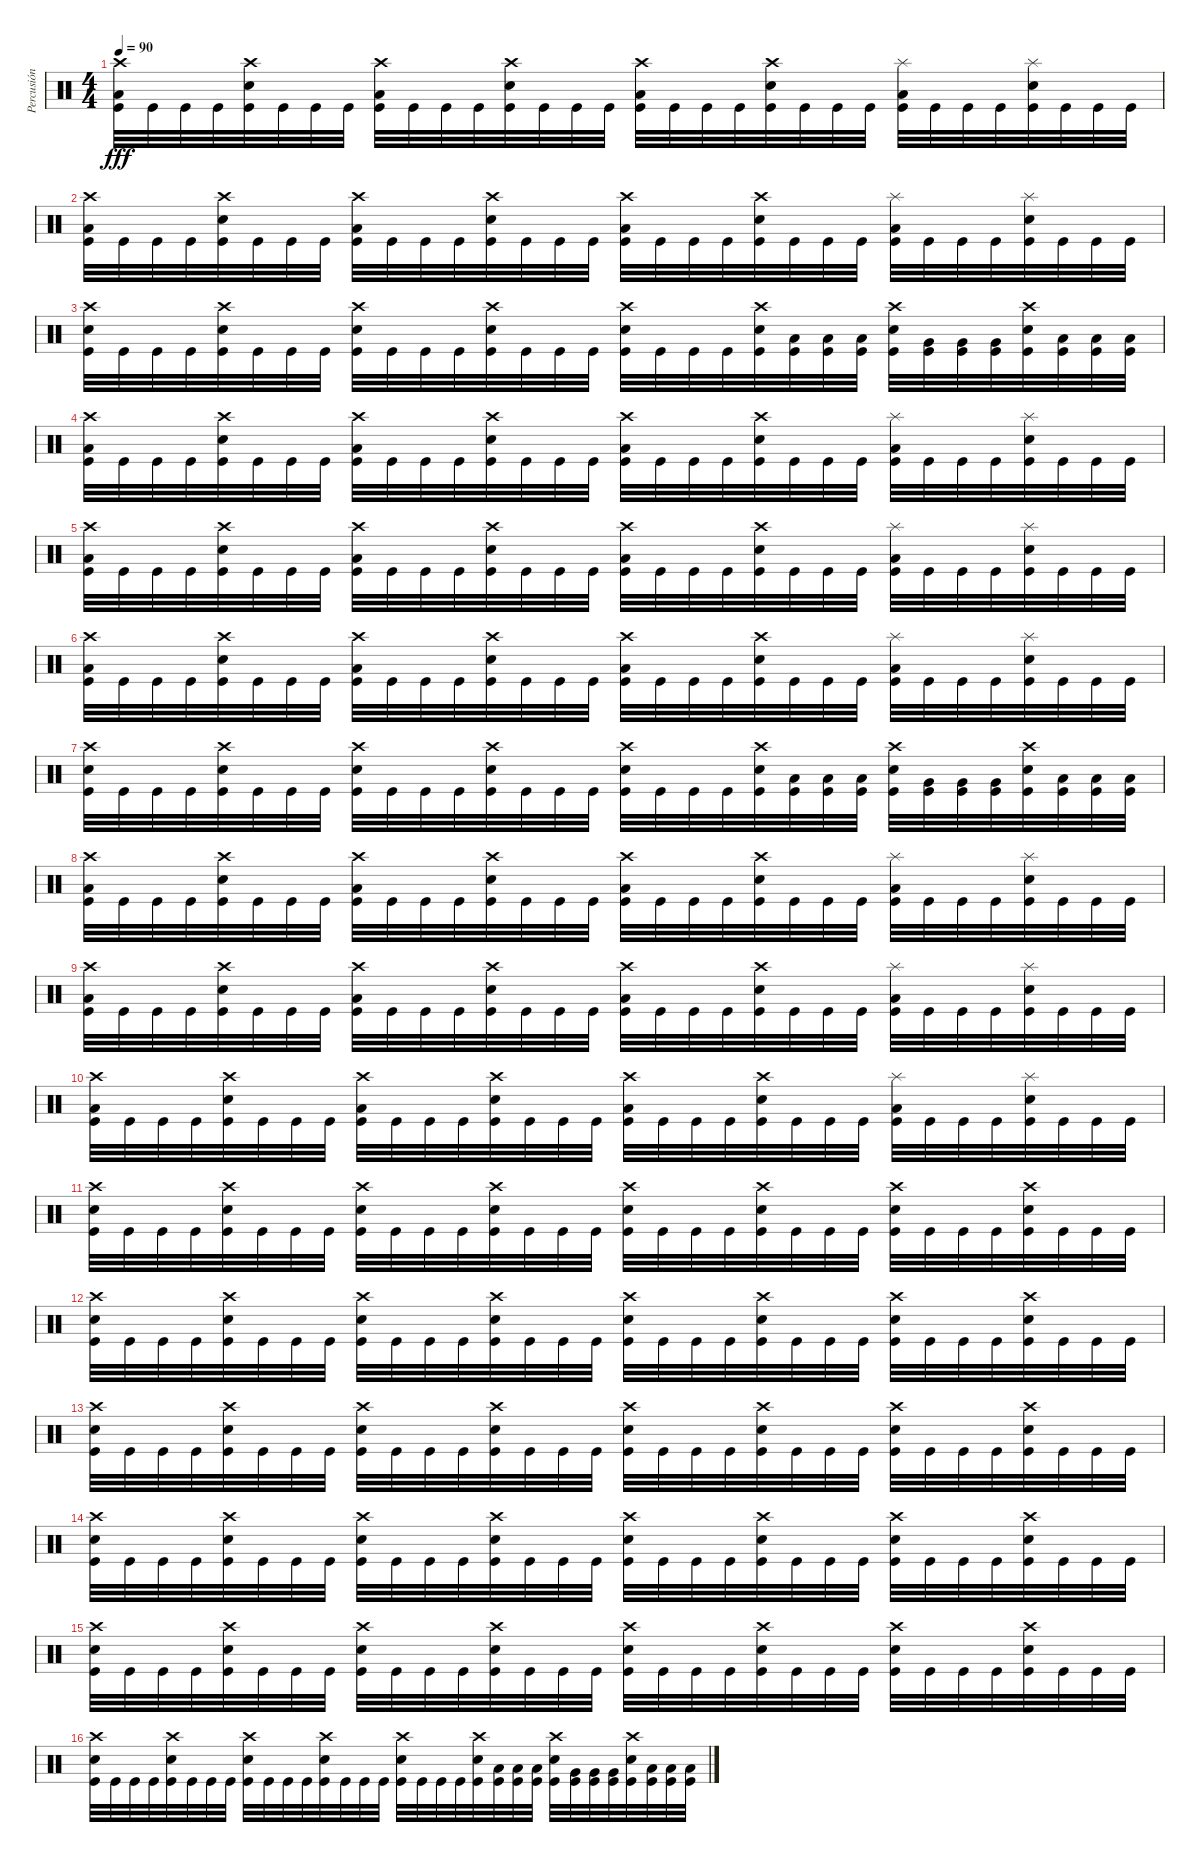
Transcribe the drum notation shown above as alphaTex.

\track ("Percusión" "Percusión") {instrument percussion}
\staff {score}
\articulation defaults
\ts (4 4)
\tempo 90
\clef neutral
\ks c
("Crash high (hit)" "Low Floor Tom (hit)" "Kick (hit)").32{dy fff} "Kick (hit)".32 "Kick (hit)".32 "Kick (hit)".32 ("Crash high (hit)" "Snare (hit) 2" "Kick (hit)").32 "Kick (hit)".32 "Kick (hit)".32 "Kick (hit)".32 ("Crash high (hit)" "Low Floor Tom (hit)" "Kick (hit)").32 "Kick (hit)".32 "Kick (hit)".32 "Kick (hit)".32 ("Crash high (hit)" "Snare (hit) 2" "Kick (hit)").32 "Kick (hit)".32 "Kick (hit)".32 "Kick (hit)".32 ("Crash high (hit)" "Low Floor Tom (hit)" "Kick (hit)").32 "Kick (hit)".32 "Kick (hit)".32 "Kick (hit)".32 ("Crash high (hit)" "Snare (hit) 2" "Kick (hit)").32 "Kick (hit)".32 "Kick (hit)".32 "Kick (hit)".32 ("Splash (hit)" "Low Floor Tom (hit)" "Kick (hit)").32 "Kick (hit)".32 "Kick (hit)".32 "Kick (hit)".32 ("Splash (hit)" "Snare (hit) 2" "Kick (hit)").32 "Kick (hit)".32 "Kick (hit)".32 "Kick (hit)".32 |
("Crash high (hit)" "Low Floor Tom (hit)" "Kick (hit)").32 "Kick (hit)".32 "Kick (hit)".32 "Kick (hit)".32 ("Crash high (hit)" "Snare (hit) 2" "Kick (hit)").32 "Kick (hit)".32 "Kick (hit)".32 "Kick (hit)".32 ("Crash high (hit)" "Low Floor Tom (hit)" "Kick (hit)").32 "Kick (hit)".32 "Kick (hit)".32 "Kick (hit)".32 ("Crash high (hit)" "Snare (hit) 2" "Kick (hit)").32 "Kick (hit)".32 "Kick (hit)".32 "Kick (hit)".32 ("Crash high (hit)" "Low Floor Tom (hit)" "Kick (hit)").32 "Kick (hit)".32 "Kick (hit)".32 "Kick (hit)".32 ("Crash high (hit)" "Snare (hit) 2" "Kick (hit)").32 "Kick (hit)".32 "Kick (hit)".32 "Kick (hit)".32 ("Splash (hit)" "Low Floor Tom (hit)" "Kick (hit)").32 "Kick (hit)".32 "Kick (hit)".32 "Kick (hit)".32 ("Splash (hit)" "Snare (hit) 2" "Kick (hit)").32 "Kick (hit)".32 "Kick (hit)".32 "Kick (hit)".32 |
("Crash high (hit)" "Snare (hit) 2" "Kick (hit)").32 "Kick (hit)".32 "Kick (hit)".32 "Kick (hit)".32 ("Crash high (hit)" "Snare (hit) 2" "Kick (hit)").32 "Kick (hit)".32 "Kick (hit)".32 "Kick (hit)".32 ("Crash high (hit)" "Snare (hit) 2" "Kick (hit)").32 "Kick (hit)".32 "Kick (hit)".32 "Kick (hit)".32 ("Crash high (hit)" "Snare (hit) 2" "Kick (hit)").32 "Kick (hit)".32 "Kick (hit)".32 "Kick (hit)".32 ("Crash high (hit)" "Snare (hit) 2" "Kick (hit)").32 "Kick (hit)".32 "Kick (hit)".32 "Kick (hit)".32 ("Crash high (hit)" "Snare (hit) 2" "Kick (hit)").32 ("Low Tom (hit)" "Kick (hit)").32 ("Low Tom (hit)" "Kick (hit)").32 ("Low Tom (hit)" "Kick (hit)").32 ("Crash high (hit)" "Snare (hit) 2" "Kick (hit)").32 ("Very Low Tom (hit)" "Kick (hit)").32 ("Very Low Tom (hit)" "Kick (hit)").32 ("Very Low Tom (hit)" "Kick (hit)").32 ("Crash high (hit)" "Snare (hit) 2" "Kick (hit)").32 ("Low Floor Tom (hit)" "Kick (hit)").32 ("Low Floor Tom (hit)" "Kick (hit)").32 ("Low Floor Tom (hit)" "Kick (hit)").32 |
("Crash high (hit)" "Low Floor Tom (hit)" "Kick (hit)").32 "Kick (hit)".32 "Kick (hit)".32 "Kick (hit)".32 ("Crash high (hit)" "Snare (hit) 2" "Kick (hit)").32 "Kick (hit)".32 "Kick (hit)".32 "Kick (hit)".32 ("Crash high (hit)" "Low Floor Tom (hit)" "Kick (hit)").32 "Kick (hit)".32 "Kick (hit)".32 "Kick (hit)".32 ("Crash high (hit)" "Snare (hit) 2" "Kick (hit)").32 "Kick (hit)".32 "Kick (hit)".32 "Kick (hit)".32 ("Crash high (hit)" "Low Floor Tom (hit)" "Kick (hit)").32 "Kick (hit)".32 "Kick (hit)".32 "Kick (hit)".32 ("Crash high (hit)" "Snare (hit) 2" "Kick (hit)").32 "Kick (hit)".32 "Kick (hit)".32 "Kick (hit)".32 ("Splash (hit)" "Low Floor Tom (hit)" "Kick (hit)").32 "Kick (hit)".32 "Kick (hit)".32 "Kick (hit)".32 ("Splash (hit)" "Snare (hit) 2" "Kick (hit)").32 "Kick (hit)".32 "Kick (hit)".32 "Kick (hit)".32 |
("Crash high (hit)" "Low Floor Tom (hit)" "Kick (hit)").32 "Kick (hit)".32 "Kick (hit)".32 "Kick (hit)".32 ("Crash high (hit)" "Snare (hit) 2" "Kick (hit)").32 "Kick (hit)".32 "Kick (hit)".32 "Kick (hit)".32 ("Crash high (hit)" "Low Floor Tom (hit)" "Kick (hit)").32 "Kick (hit)".32 "Kick (hit)".32 "Kick (hit)".32 ("Crash high (hit)" "Snare (hit) 2" "Kick (hit)").32 "Kick (hit)".32 "Kick (hit)".32 "Kick (hit)".32 ("Crash high (hit)" "Low Floor Tom (hit)" "Kick (hit)").32 "Kick (hit)".32 "Kick (hit)".32 "Kick (hit)".32 ("Crash high (hit)" "Snare (hit) 2" "Kick (hit)").32 "Kick (hit)".32 "Kick (hit)".32 "Kick (hit)".32 ("Splash (hit)" "Low Floor Tom (hit)" "Kick (hit)").32 "Kick (hit)".32 "Kick (hit)".32 "Kick (hit)".32 ("Splash (hit)" "Snare (hit) 2" "Kick (hit)").32 "Kick (hit)".32 "Kick (hit)".32 "Kick (hit)".32 |
("Crash high (hit)" "Low Floor Tom (hit)" "Kick (hit)").32 "Kick (hit)".32 "Kick (hit)".32 "Kick (hit)".32 ("Crash high (hit)" "Snare (hit) 2" "Kick (hit)").32 "Kick (hit)".32 "Kick (hit)".32 "Kick (hit)".32 ("Crash high (hit)" "Low Floor Tom (hit)" "Kick (hit)").32 "Kick (hit)".32 "Kick (hit)".32 "Kick (hit)".32 ("Crash high (hit)" "Snare (hit) 2" "Kick (hit)").32 "Kick (hit)".32 "Kick (hit)".32 "Kick (hit)".32 ("Crash high (hit)" "Low Floor Tom (hit)" "Kick (hit)").32 "Kick (hit)".32 "Kick (hit)".32 "Kick (hit)".32 ("Crash high (hit)" "Snare (hit) 2" "Kick (hit)").32 "Kick (hit)".32 "Kick (hit)".32 "Kick (hit)".32 ("Splash (hit)" "Low Floor Tom (hit)" "Kick (hit)").32 "Kick (hit)".32 "Kick (hit)".32 "Kick (hit)".32 ("Splash (hit)" "Snare (hit) 2" "Kick (hit)").32 "Kick (hit)".32 "Kick (hit)".32 "Kick (hit)".32 |
("Crash high (hit)" "Snare (hit) 2" "Kick (hit)").32 "Kick (hit)".32 "Kick (hit)".32 "Kick (hit)".32 ("Crash high (hit)" "Snare (hit) 2" "Kick (hit)").32 "Kick (hit)".32 "Kick (hit)".32 "Kick (hit)".32 ("Crash high (hit)" "Snare (hit) 2" "Kick (hit)").32 "Kick (hit)".32 "Kick (hit)".32 "Kick (hit)".32 ("Crash high (hit)" "Snare (hit) 2" "Kick (hit)").32 "Kick (hit)".32 "Kick (hit)".32 "Kick (hit)".32 ("Crash high (hit)" "Snare (hit) 2" "Kick (hit)").32 "Kick (hit)".32 "Kick (hit)".32 "Kick (hit)".32 ("Crash high (hit)" "Snare (hit) 2" "Kick (hit)").32 ("Low Tom (hit)" "Kick (hit)").32 ("Low Tom (hit)" "Kick (hit)").32 ("Low Tom (hit)" "Kick (hit)").32 ("Crash high (hit)" "Snare (hit) 2" "Kick (hit)").32 ("Very Low Tom (hit)" "Kick (hit)").32 ("Very Low Tom (hit)" "Kick (hit)").32 ("Very Low Tom (hit)" "Kick (hit)").32 ("Crash high (hit)" "Snare (hit) 2" "Kick (hit)").32 ("Low Floor Tom (hit)" "Kick (hit)").32 ("Low Floor Tom (hit)" "Kick (hit)").32 ("Low Floor Tom (hit)" "Kick (hit)").32 |
("Crash high (hit)" "Low Floor Tom (hit)" "Kick (hit)").32 "Kick (hit)".32 "Kick (hit)".32 "Kick (hit)".32 ("Crash high (hit)" "Snare (hit) 2" "Kick (hit)").32 "Kick (hit)".32 "Kick (hit)".32 "Kick (hit)".32 ("Crash high (hit)" "Low Floor Tom (hit)" "Kick (hit)").32 "Kick (hit)".32 "Kick (hit)".32 "Kick (hit)".32 ("Crash high (hit)" "Snare (hit) 2" "Kick (hit)").32 "Kick (hit)".32 "Kick (hit)".32 "Kick (hit)".32 ("Crash high (hit)" "Low Floor Tom (hit)" "Kick (hit)").32 "Kick (hit)".32 "Kick (hit)".32 "Kick (hit)".32 ("Crash high (hit)" "Snare (hit) 2" "Kick (hit)").32 "Kick (hit)".32 "Kick (hit)".32 "Kick (hit)".32 ("Splash (hit)" "Low Floor Tom (hit)" "Kick (hit)").32 "Kick (hit)".32 "Kick (hit)".32 "Kick (hit)".32 ("Splash (hit)" "Snare (hit) 2" "Kick (hit)").32 "Kick (hit)".32 "Kick (hit)".32 "Kick (hit)".32 |
("Crash high (hit)" "Low Floor Tom (hit)" "Kick (hit)").32 "Kick (hit)".32 "Kick (hit)".32 "Kick (hit)".32 ("Crash high (hit)" "Snare (hit) 2" "Kick (hit)").32 "Kick (hit)".32 "Kick (hit)".32 "Kick (hit)".32 ("Crash high (hit)" "Low Floor Tom (hit)" "Kick (hit)").32 "Kick (hit)".32 "Kick (hit)".32 "Kick (hit)".32 ("Crash high (hit)" "Snare (hit) 2" "Kick (hit)").32 "Kick (hit)".32 "Kick (hit)".32 "Kick (hit)".32 ("Crash high (hit)" "Low Floor Tom (hit)" "Kick (hit)").32 "Kick (hit)".32 "Kick (hit)".32 "Kick (hit)".32 ("Crash high (hit)" "Snare (hit) 2" "Kick (hit)").32 "Kick (hit)".32 "Kick (hit)".32 "Kick (hit)".32 ("Splash (hit)" "Low Floor Tom (hit)" "Kick (hit)").32 "Kick (hit)".32 "Kick (hit)".32 "Kick (hit)".32 ("Splash (hit)" "Snare (hit) 2" "Kick (hit)").32 "Kick (hit)".32 "Kick (hit)".32 "Kick (hit)".32 |
("Crash high (hit)" "Low Floor Tom (hit)" "Kick (hit)").32 "Kick (hit)".32 "Kick (hit)".32 "Kick (hit)".32 ("Crash high (hit)" "Snare (hit) 2" "Kick (hit)").32 "Kick (hit)".32 "Kick (hit)".32 "Kick (hit)".32 ("Crash high (hit)" "Low Floor Tom (hit)" "Kick (hit)").32 "Kick (hit)".32 "Kick (hit)".32 "Kick (hit)".32 ("Crash high (hit)" "Snare (hit) 2" "Kick (hit)").32 "Kick (hit)".32 "Kick (hit)".32 "Kick (hit)".32 ("Crash high (hit)" "Low Floor Tom (hit)" "Kick (hit)").32 "Kick (hit)".32 "Kick (hit)".32 "Kick (hit)".32 ("Crash high (hit)" "Snare (hit) 2" "Kick (hit)").32 "Kick (hit)".32 "Kick (hit)".32 "Kick (hit)".32 ("Splash (hit)" "Low Floor Tom (hit)" "Kick (hit)").32 "Kick (hit)".32 "Kick (hit)".32 "Kick (hit)".32 ("Splash (hit)" "Snare (hit) 2" "Kick (hit)").32 "Kick (hit)".32 "Kick (hit)".32 "Kick (hit)".32 |
("Crash high (hit)" "Snare (hit) 2" "Kick (hit)").32 "Kick (hit)".32 "Kick (hit)".32 "Kick (hit)".32 ("Crash high (hit)" "Snare (hit) 2" "Kick (hit)").32 "Kick (hit)".32 "Kick (hit)".32 "Kick (hit)".32 ("Crash high (hit)" "Snare (hit) 2" "Kick (hit)").32 "Kick (hit)".32 "Kick (hit)".32 "Kick (hit)".32 ("Crash high (hit)" "Snare (hit) 2" "Kick (hit)").32 "Kick (hit)".32 "Kick (hit)".32 "Kick (hit)".32 ("Crash high (hit)" "Snare (hit) 2" "Kick (hit)").32 "Kick (hit)".32 "Kick (hit)".32 "Kick (hit)".32 ("Crash high (hit)" "Snare (hit) 2" "Kick (hit)").32 "Kick (hit)".32 "Kick (hit)".32 "Kick (hit)".32 ("Crash high (hit)" "Snare (hit) 2" "Kick (hit)").32 "Kick (hit)".32 "Kick (hit)".32 "Kick (hit)".32 ("Crash high (hit)" "Snare (hit) 2" "Kick (hit)").32 "Kick (hit)".32 "Kick (hit)".32 "Kick (hit)".32 |
("Crash high (hit)" "Snare (hit) 2" "Kick (hit)").32 "Kick (hit)".32 "Kick (hit)".32 "Kick (hit)".32 ("Crash high (hit)" "Snare (hit) 2" "Kick (hit)").32 "Kick (hit)".32 "Kick (hit)".32 "Kick (hit)".32 ("Crash high (hit)" "Snare (hit) 2" "Kick (hit)").32 "Kick (hit)".32 "Kick (hit)".32 "Kick (hit)".32 ("Crash high (hit)" "Snare (hit) 2" "Kick (hit)").32 "Kick (hit)".32 "Kick (hit)".32 "Kick (hit)".32 ("Crash high (hit)" "Snare (hit) 2" "Kick (hit)").32 "Kick (hit)".32 "Kick (hit)".32 "Kick (hit)".32 ("Crash high (hit)" "Snare (hit) 2" "Kick (hit)").32 "Kick (hit)".32 "Kick (hit)".32 "Kick (hit)".32 ("Crash high (hit)" "Snare (hit) 2" "Kick (hit)").32 "Kick (hit)".32 "Kick (hit)".32 "Kick (hit)".32 ("Crash high (hit)" "Snare (hit) 2" "Kick (hit)").32 "Kick (hit)".32 "Kick (hit)".32 "Kick (hit)".32 |
("Crash high (hit)" "Snare (hit) 2" "Kick (hit)").32 "Kick (hit)".32 "Kick (hit)".32 "Kick (hit)".32 ("Crash high (hit)" "Snare (hit) 2" "Kick (hit)").32 "Kick (hit)".32 "Kick (hit)".32 "Kick (hit)".32 ("Crash high (hit)" "Snare (hit) 2" "Kick (hit)").32 "Kick (hit)".32 "Kick (hit)".32 "Kick (hit)".32 ("Crash high (hit)" "Snare (hit) 2" "Kick (hit)").32 "Kick (hit)".32 "Kick (hit)".32 "Kick (hit)".32 ("Crash high (hit)" "Snare (hit) 2" "Kick (hit)").32 "Kick (hit)".32 "Kick (hit)".32 "Kick (hit)".32 ("Crash high (hit)" "Snare (hit) 2" "Kick (hit)").32 "Kick (hit)".32 "Kick (hit)".32 "Kick (hit)".32 ("Crash high (hit)" "Snare (hit) 2" "Kick (hit)").32 "Kick (hit)".32 "Kick (hit)".32 "Kick (hit)".32 ("Crash high (hit)" "Snare (hit) 2" "Kick (hit)").32 "Kick (hit)".32 "Kick (hit)".32 "Kick (hit)".32 |
("Crash high (hit)" "Snare (hit) 2" "Kick (hit)").32 "Kick (hit)".32 "Kick (hit)".32 "Kick (hit)".32 ("Crash high (hit)" "Snare (hit) 2" "Kick (hit)").32 "Kick (hit)".32 "Kick (hit)".32 "Kick (hit)".32 ("Crash high (hit)" "Snare (hit) 2" "Kick (hit)").32 "Kick (hit)".32 "Kick (hit)".32 "Kick (hit)".32 ("Crash high (hit)" "Snare (hit) 2" "Kick (hit)").32 "Kick (hit)".32 "Kick (hit)".32 "Kick (hit)".32 ("Crash high (hit)" "Snare (hit) 2" "Kick (hit)").32 "Kick (hit)".32 "Kick (hit)".32 "Kick (hit)".32 ("Crash high (hit)" "Snare (hit) 2" "Kick (hit)").32 "Kick (hit)".32 "Kick (hit)".32 "Kick (hit)".32 ("Crash high (hit)" "Snare (hit) 2" "Kick (hit)").32 "Kick (hit)".32 "Kick (hit)".32 "Kick (hit)".32 ("Crash high (hit)" "Snare (hit) 2" "Kick (hit)").32 "Kick (hit)".32 "Kick (hit)".32 "Kick (hit)".32 |
("Crash high (hit)" "Snare (hit) 2" "Kick (hit)").32 "Kick (hit)".32 "Kick (hit)".32 "Kick (hit)".32 ("Crash high (hit)" "Snare (hit) 2" "Kick (hit)").32 "Kick (hit)".32 "Kick (hit)".32 "Kick (hit)".32 ("Crash high (hit)" "Snare (hit) 2" "Kick (hit)").32 "Kick (hit)".32 "Kick (hit)".32 "Kick (hit)".32 ("Crash high (hit)" "Snare (hit) 2" "Kick (hit)").32 "Kick (hit)".32 "Kick (hit)".32 "Kick (hit)".32 ("Crash high (hit)" "Snare (hit) 2" "Kick (hit)").32 "Kick (hit)".32 "Kick (hit)".32 "Kick (hit)".32 ("Crash high (hit)" "Snare (hit) 2" "Kick (hit)").32 "Kick (hit)".32 "Kick (hit)".32 "Kick (hit)".32 ("Crash high (hit)" "Snare (hit) 2" "Kick (hit)").32 "Kick (hit)".32 "Kick (hit)".32 "Kick (hit)".32 ("Crash high (hit)" "Snare (hit) 2" "Kick (hit)").32 "Kick (hit)".32 "Kick (hit)".32 "Kick (hit)".32 |
("Crash high (hit)" "Snare (hit) 2" "Kick (hit)").32 "Kick (hit)".32 "Kick (hit)".32 "Kick (hit)".32 ("Crash high (hit)" "Snare (hit) 2" "Kick (hit)").32 "Kick (hit)".32 "Kick (hit)".32 "Kick (hit)".32 ("Crash high (hit)" "Snare (hit) 2" "Kick (hit)").32 "Kick (hit)".32 "Kick (hit)".32 "Kick (hit)".32 ("Crash high (hit)" "Snare (hit) 2" "Kick (hit)").32 "Kick (hit)".32 "Kick (hit)".32 "Kick (hit)".32 ("Crash high (hit)" "Snare (hit) 2" "Kick (hit)").32 "Kick (hit)".32 "Kick (hit)".32 "Kick (hit)".32 ("Crash high (hit)" "Snare (hit) 2" "Kick (hit)").32 ("Low Tom (hit)" "Kick (hit)").32 ("Low Tom (hit)" "Kick (hit)").32 ("Low Tom (hit)" "Kick (hit)").32 ("Crash high (hit)" "Snare (hit) 2" "Kick (hit)").32 ("Very Low Tom (hit)" "Kick (hit)").32 ("Very Low Tom (hit)" "Kick (hit)").32 ("Very Low Tom (hit)" "Kick (hit)").32 ("Crash high (hit)" "Snare (hit) 2" "Kick (hit)").32 ("Low Floor Tom (hit)" "Kick (hit)").32 ("Low Floor Tom (hit)" "Kick (hit)").32 ("Low Floor Tom (hit)" "Kick (hit)").32
